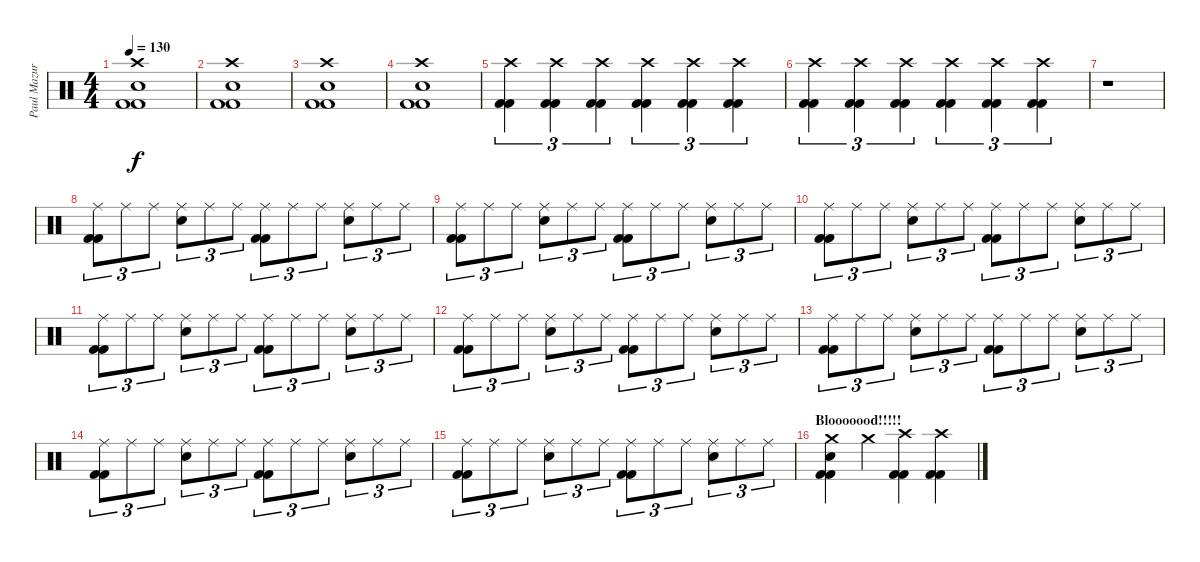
\track ("Paul Mazurkiewicz" "Paul Mazur") {instrument percussion}
\staff {score}
\articulation defaults
\ts (4 4)
\tempo 130
\clef neutral
\ks c
("Crash high (hit)" "Snare (hit) 2" "Kick (hit) 2" "Kick (hit) 2").1{dy f} |
("Crash high (hit)" "Snare (hit) 2" "Kick (hit) 2" "Kick (hit) 2").1 |
("Crash high (hit)" "Snare (hit) 2" "Kick (hit) 2" "Kick (hit) 2").1 |
("Crash high (hit)" "Snare (hit) 2" "Kick (hit) 2" "Kick (hit) 2").1 |
("Crash high (hit)" "Kick (hit) 2" "Kick (hit) 2").4{tu (3 2)} ("Crash high (hit)" "Kick (hit) 2" "Kick (hit) 2").4{tu (3 2)} ("Crash high (hit)" "Kick (hit) 2" "Kick (hit) 2").4{tu (3 2)} ("Crash high (hit)" "Kick (hit) 2" "Kick (hit) 2").4{tu (3 2)} ("Crash high (hit)" "Kick (hit) 2" "Kick (hit) 2").4{tu (3 2)} ("Crash high (hit)" "Kick (hit) 2" "Kick (hit) 2").4{tu (3 2)} |
("Crash high (hit)" "Kick (hit) 2" "Kick (hit) 2").4{tu (3 2)} ("Crash high (hit)" "Kick (hit) 2" "Kick (hit) 2").4{tu (3 2)} ("Crash high (hit)" "Kick (hit) 2" "Kick (hit) 2").4{tu (3 2)} ("Crash high (hit)" "Kick (hit) 2" "Kick (hit) 2").4{tu (3 2)} ("Crash high (hit)" "Kick (hit) 2" "Kick (hit) 2").4{tu (3 2)} ("Crash high (hit)" "Kick (hit) 2" "Kick (hit) 2").4{tu (3 2)} |
r.1 |
("Ride (middle)" "Kick (hit) 2" "Kick (hit) 2").8{tu (3 2)} "Ride (middle)".8{tu (3 2)} "Ride (middle)".8{tu (3 2)} ("Ride (middle)" "Snare (hit) 2").8{tu (3 2)} "Ride (middle)".8{tu (3 2)} "Ride (middle)".8{tu (3 2)} ("Ride (middle)" "Kick (hit) 2" "Kick (hit) 2").8{tu (3 2)} "Ride (middle)".8{tu (3 2)} "Ride (middle)".8{tu (3 2)} ("Ride (middle)" "Snare (hit) 2").8{tu (3 2)} "Ride (middle)".8{tu (3 2)} "Ride (middle)".8{tu (3 2)} |
("Ride (middle)" "Kick (hit) 2" "Kick (hit) 2").8{tu (3 2)} "Ride (middle)".8{tu (3 2)} "Ride (middle)".8{tu (3 2)} ("Ride (middle)" "Snare (hit) 2").8{tu (3 2)} "Ride (middle)".8{tu (3 2)} "Ride (middle)".8{tu (3 2)} ("Ride (middle)" "Kick (hit) 2" "Kick (hit) 2").8{tu (3 2)} "Ride (middle)".8{tu (3 2)} "Ride (middle)".8{tu (3 2)} ("Ride (middle)" "Snare (hit) 2").8{tu (3 2)} "Ride (middle)".8{tu (3 2)} "Ride (middle)".8{tu (3 2)} |
("Ride (middle)" "Kick (hit) 2" "Kick (hit) 2").8{tu (3 2)} "Ride (middle)".8{tu (3 2)} "Ride (middle)".8{tu (3 2)} ("Ride (middle)" "Snare (hit) 2").8{tu (3 2)} "Ride (middle)".8{tu (3 2)} "Ride (middle)".8{tu (3 2)} ("Ride (middle)" "Kick (hit) 2" "Kick (hit) 2").8{tu (3 2)} "Ride (middle)".8{tu (3 2)} "Ride (middle)".8{tu (3 2)} ("Ride (middle)" "Snare (hit) 2").8{tu (3 2)} "Ride (middle)".8{tu (3 2)} "Ride (middle)".8{tu (3 2)} |
("Ride (middle)" "Kick (hit) 2" "Kick (hit) 2").8{tu (3 2)} "Ride (middle)".8{tu (3 2)} "Ride (middle)".8{tu (3 2)} ("Ride (middle)" "Snare (hit) 2").8{tu (3 2)} "Ride (middle)".8{tu (3 2)} "Ride (middle)".8{tu (3 2)} ("Ride (middle)" "Kick (hit) 2" "Kick (hit) 2").8{tu (3 2)} "Ride (middle)".8{tu (3 2)} "Ride (middle)".8{tu (3 2)} ("Ride (middle)" "Snare (hit) 2").8{tu (3 2)} "Ride (middle)".8{tu (3 2)} "Ride (middle)".8{tu (3 2)} |
("Ride (middle)" "Kick (hit) 2" "Kick (hit) 2").8{tu (3 2)} "Ride (middle)".8{tu (3 2)} "Ride (middle)".8{tu (3 2)} ("Ride (middle)" "Snare (hit) 2").8{tu (3 2)} "Ride (middle)".8{tu (3 2)} "Ride (middle)".8{tu (3 2)} ("Ride (middle)" "Kick (hit) 2" "Kick (hit) 2").8{tu (3 2)} "Ride (middle)".8{tu (3 2)} "Ride (middle)".8{tu (3 2)} ("Ride (middle)" "Snare (hit) 2").8{tu (3 2)} "Ride (middle)".8{tu (3 2)} "Ride (middle)".8{tu (3 2)} |
("Ride (middle)" "Kick (hit) 2" "Kick (hit) 2").8{tu (3 2)} "Ride (middle)".8{tu (3 2)} "Ride (middle)".8{tu (3 2)} ("Ride (middle)" "Snare (hit) 2").8{tu (3 2)} "Ride (middle)".8{tu (3 2)} "Ride (middle)".8{tu (3 2)} ("Ride (middle)" "Kick (hit) 2" "Kick (hit) 2").8{tu (3 2)} "Ride (middle)".8{tu (3 2)} "Ride (middle)".8{tu (3 2)} ("Ride (middle)" "Snare (hit) 2").8{tu (3 2)} "Ride (middle)".8{tu (3 2)} "Ride (middle)".8{tu (3 2)} |
("Ride (middle)" "Kick (hit) 2" "Kick (hit) 2").8{tu (3 2)} "Ride (middle)".8{tu (3 2)} "Ride (middle)".8{tu (3 2)} ("Ride (middle)" "Snare (hit) 2").8{tu (3 2)} "Ride (middle)".8{tu (3 2)} "Ride (middle)".8{tu (3 2)} ("Ride (middle)" "Kick (hit) 2" "Kick (hit) 2").8{tu (3 2)} "Ride (middle)".8{tu (3 2)} "Ride (middle)".8{tu (3 2)} ("Ride (middle)" "Snare (hit) 2").8{tu (3 2)} "Ride (middle)".8{tu (3 2)} "Ride (middle)".8{tu (3 2)} |
("Ride (middle)" "Kick (hit) 2" "Kick (hit) 2").8{tu (3 2)} "Ride (middle)".8{tu (3 2)} "Ride (middle)".8{tu (3 2)} ("Ride (middle)" "Snare (hit) 2").8{tu (3 2)} "Ride (middle)".8{tu (3 2)} "Ride (middle)".8{tu (3 2)} ("Ride (middle)" "Kick (hit) 2" "Kick (hit) 2").8{tu (3 2)} "Ride (middle)".8{tu (3 2)} "Ride (middle)".8{tu (3 2)} ("Ride (middle)" "Snare (hit) 2").8{tu (3 2)} "Ride (middle)".8{tu (3 2)} "Ride (middle)".8{tu (3 2)} |
\section ("" "Blooooood!!!!!")
("Crash medium (hit)" "Snare (hit) 2" "Kick (hit) 2" "Kick (hit) 2").4 "Crash medium (hit)".4 ("Crash high (hit)" "Kick (hit) 2" "Kick (hit) 2").4 ("Crash high (hit)" "Kick (hit) 2" "Kick (hit) 2").4
